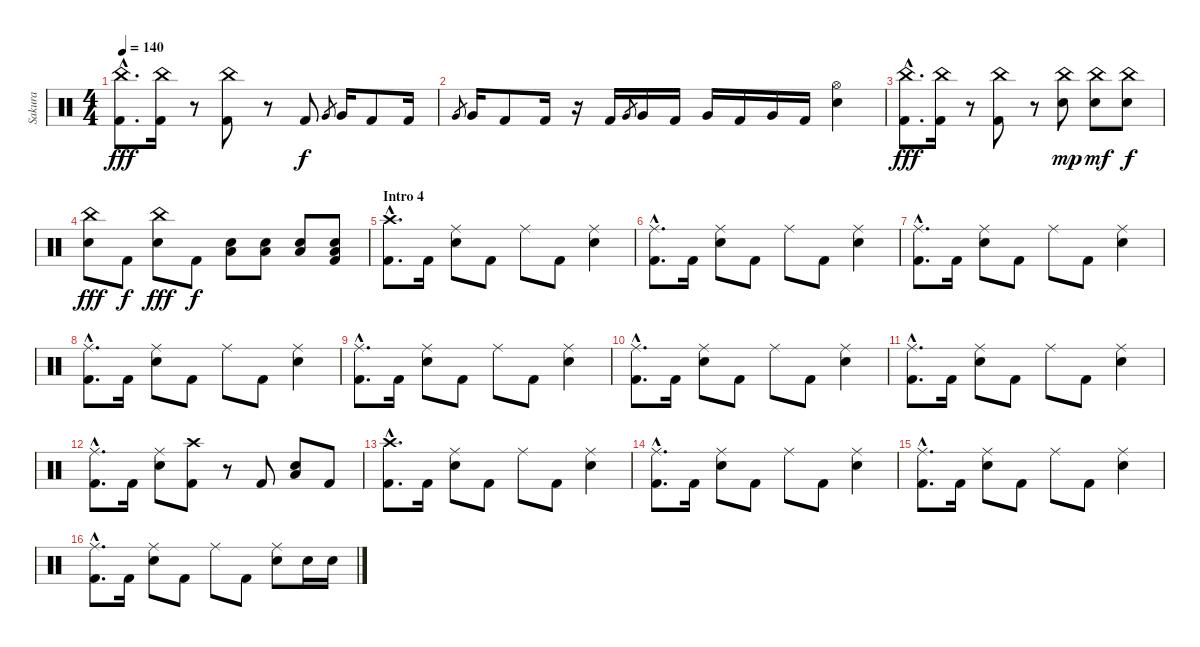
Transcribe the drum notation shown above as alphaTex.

\track ("Sakura" "Sakura") {instrument percussion}
\staff {score}
\articulation defaults
\ts (4 4)
\tempo 140
\clef neutral
\ks c
("China (hit)"{hac} "Kick (hit) 2"{hac}).8{d dy fff} ("China (hit)" "Kick (hit) 2").16 r.8 ("China (hit)" "Kick (hit) 2").8 r.8 "Kick (hit) 2".8{dy f} "Very Low Tom (hit)".8{gr} "Very Low Tom (hit)".16 "Kick (hit) 2".8 "Kick (hit) 2".16 |
"Very Low Tom (hit)".8{gr} "Very Low Tom (hit)".16 "Kick (hit) 2".8 "Kick (hit) 2".16 r.16 "Kick (hit) 2".16 "Very Low Tom (hit)".8{gr} "Very Low Tom (hit)".16 "Kick (hit) 2".16 "Very Low Tom (hit)".16 "Kick (hit) 2".16 "Very Low Tom (hit)".16 "Kick (hit) 2".16 ("Hi-Hat (open)" "Electric Snare (hit)").4 |
("China (hit)"{hac} "Kick (hit) 2"{hac}).8{d dy fff} ("China (hit)" "Kick (hit) 2").16 r.8 ("China (hit)" "Kick (hit) 2").8 r.8 ("China (hit)" "Electric Snare (hit)").8{dy mp} ("China (hit)" "Electric Snare (hit)").8{dy mf} ("China (hit)" "Electric Snare (hit)").8{dy f} |
("China (hit)" "Electric Snare (hit)").8{dy fff} "Kick (hit) 2".8{dy f} ("China (hit)" "Electric Snare (hit)").8{dy fff} "Kick (hit) 2".8{dy f} ("Electric Snare (hit)" "Low Tom (hit)").8 ("Electric Snare (hit)" "Low Tom (hit)").8 ("Electric Snare (hit)" "Low Tom (hit)").8 ("Electric Snare (hit)" "Low Tom (hit)" "Kick (hit) 2").8 |
\section ("" "Intro 4")
("Crash high (hit)"{hac} "Kick (hit) 2"{hac}).8{d} "Kick (hit) 2".16 ("Ride (middle)" "Electric Snare (hit)").8 "Kick (hit) 2".8 "Ride (middle)".8 "Kick (hit) 2".8 ("Ride (middle)" "Electric Snare (hit)").4 |
("Ride (middle)"{hac} "Kick (hit) 2"{hac}).8{d} "Kick (hit) 2".16 ("Ride (middle)" "Electric Snare (hit)").8 "Kick (hit) 2".8 "Ride (middle)".8 "Kick (hit) 2".8 ("Ride (middle)" "Electric Snare (hit)").4 |
("Ride (middle)"{hac} "Kick (hit) 2"{hac}).8{d} "Kick (hit) 2".16 ("Ride (middle)" "Electric Snare (hit)").8 "Kick (hit) 2".8 "Ride (middle)".8 "Kick (hit) 2".8 ("Ride (middle)" "Electric Snare (hit)").4 |
("Ride (middle)"{hac} "Kick (hit) 2"{hac}).8{d} "Kick (hit) 2".16 ("Ride (middle)" "Electric Snare (hit)").8 "Kick (hit) 2".8 "Ride (middle)".8 "Kick (hit) 2".8 ("Ride (middle)" "Electric Snare (hit)").4 |
("Ride (middle)"{hac} "Kick (hit) 2"{hac}).8{d} "Kick (hit) 2".16 ("Ride (middle)" "Electric Snare (hit)").8 "Kick (hit) 2".8 "Ride (middle)".8 "Kick (hit) 2".8 ("Ride (middle)" "Electric Snare (hit)").4 |
("Ride (middle)"{hac} "Kick (hit) 2"{hac}).8{d} "Kick (hit) 2".16 ("Ride (middle)" "Electric Snare (hit)").8 "Kick (hit) 2".8 "Ride (middle)".8 "Kick (hit) 2".8 ("Ride (middle)" "Electric Snare (hit)").4 |
("Ride (middle)"{hac} "Kick (hit) 2"{hac}).8{d} "Kick (hit) 2".16 ("Ride (middle)" "Electric Snare (hit)").8 "Kick (hit) 2".8 "Ride (middle)".8 "Kick (hit) 2".8 ("Ride (middle)" "Electric Snare (hit)").4 |
("Ride (middle)"{hac} "Kick (hit) 2"{hac}).8{d} "Kick (hit) 2".16 ("Ride (middle)" "Electric Snare (hit)").8 ("Crash high (hit)" "Kick (hit) 2").8 r.8 "Kick (hit) 2".8 ("Electric Snare (hit)" "Low Tom (hit)").8 "Kick (hit) 2".8 |
("Crash high (hit)"{hac} "Kick (hit) 2"{hac}).8{d} "Kick (hit) 2".16 ("Ride (middle)" "Electric Snare (hit)").8 "Kick (hit) 2".8 "Ride (middle)".8 "Kick (hit) 2".8 ("Ride (middle)" "Electric Snare (hit)").4 |
("Ride (middle)"{hac} "Kick (hit) 2"{hac}).8{d} "Kick (hit) 2".16 ("Ride (middle)" "Electric Snare (hit)").8 "Kick (hit) 2".8 "Ride (middle)".8 "Kick (hit) 2".8 ("Ride (middle)" "Electric Snare (hit)").4 |
("Ride (middle)"{hac} "Kick (hit) 2"{hac}).8{d} "Kick (hit) 2".16 ("Ride (middle)" "Electric Snare (hit)").8 "Kick (hit) 2".8 "Ride (middle)".8 "Kick (hit) 2".8 ("Ride (middle)" "Electric Snare (hit)").4 |
("Ride (middle)"{hac} "Kick (hit) 2"{hac}).8{d} "Kick (hit) 2".16 ("Ride (middle)" "Electric Snare (hit)").8 "Kick (hit) 2".8 "Ride (middle)".8 "Kick (hit) 2".8 ("Ride (middle)" "Electric Snare (hit)").8 "Electric Snare (hit)".16 "Electric Snare (hit)".16
